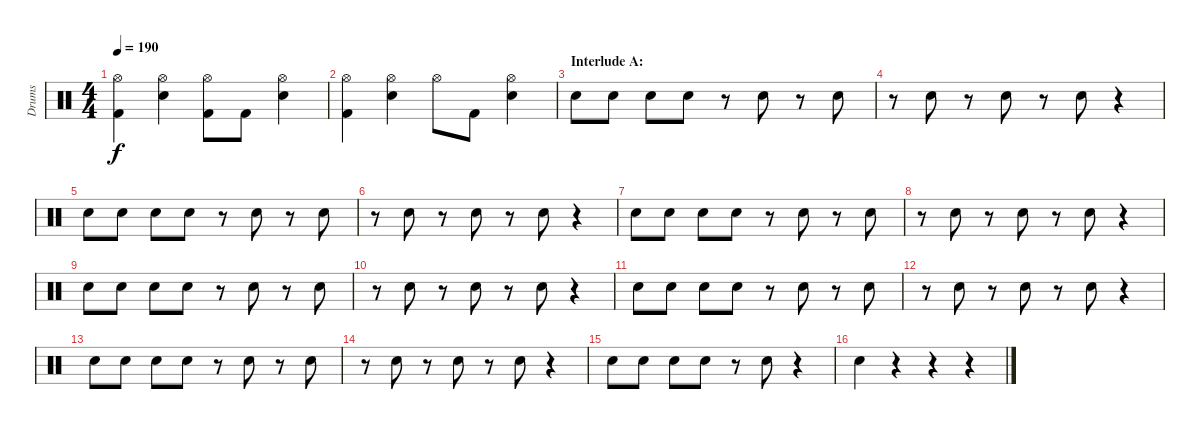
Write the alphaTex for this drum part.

\track ("Drums" "Drums") {instrument percussion}
\staff {score}
\articulation defaults
\ts (4 4)
\tempo 190
\clef neutral
\ks c
("Hi-Hat (open)" "Kick (hit) 2").4{dy f} ("Hi-Hat (open)" "Electric Snare (hit)").4 ("Hi-Hat (open)" "Kick (hit) 2").8 "Kick (hit) 2".8 ("Hi-Hat (open)" "Electric Snare (hit)").4 |
("Hi-Hat (open)" "Kick (hit) 2").4 ("Hi-Hat (open)" "Electric Snare (hit)").4 "Hi-Hat (open)".8 "Kick (hit) 2".8 ("Hi-Hat (open)" "Electric Snare (hit)").4 |
\section ("" "Interlude A:")
"Electric Snare (hit)".8 "Electric Snare (hit)".8 "Electric Snare (hit)".8 "Electric Snare (hit)".8 r.8 "Electric Snare (hit)".8 r.8 "Electric Snare (hit)".8 |
r.8 "Electric Snare (hit)".8 r.8 "Electric Snare (hit)".8 r.8 "Electric Snare (hit)".8 r.4 |
"Electric Snare (hit)".8 "Electric Snare (hit)".8 "Electric Snare (hit)".8 "Electric Snare (hit)".8 r.8 "Electric Snare (hit)".8 r.8 "Electric Snare (hit)".8 |
r.8 "Electric Snare (hit)".8 r.8 "Electric Snare (hit)".8 r.8 "Electric Snare (hit)".8 r.4 |
"Electric Snare (hit)".8 "Electric Snare (hit)".8 "Electric Snare (hit)".8 "Electric Snare (hit)".8 r.8 "Electric Snare (hit)".8 r.8 "Electric Snare (hit)".8 |
r.8 "Electric Snare (hit)".8 r.8 "Electric Snare (hit)".8 r.8 "Electric Snare (hit)".8 r.4 |
"Electric Snare (hit)".8 "Electric Snare (hit)".8 "Electric Snare (hit)".8 "Electric Snare (hit)".8 r.8 "Electric Snare (hit)".8 r.8 "Electric Snare (hit)".8 |
r.8 "Electric Snare (hit)".8 r.8 "Electric Snare (hit)".8 r.8 "Electric Snare (hit)".8 r.4 |
"Electric Snare (hit)".8 "Electric Snare (hit)".8 "Electric Snare (hit)".8 "Electric Snare (hit)".8 r.8 "Electric Snare (hit)".8 r.8 "Electric Snare (hit)".8 |
r.8 "Electric Snare (hit)".8 r.8 "Electric Snare (hit)".8 r.8 "Electric Snare (hit)".8 r.4 |
"Electric Snare (hit)".8 "Electric Snare (hit)".8 "Electric Snare (hit)".8 "Electric Snare (hit)".8 r.8 "Electric Snare (hit)".8 r.8 "Electric Snare (hit)".8 |
r.8 "Electric Snare (hit)".8 r.8 "Electric Snare (hit)".8 r.8 "Electric Snare (hit)".8 r.4 |
"Electric Snare (hit)".8 "Electric Snare (hit)".8 "Electric Snare (hit)".8 "Electric Snare (hit)".8 r.8 "Electric Snare (hit)".8 r.4 |
"Electric Snare (hit)".4 r.4 r.4 r.4
